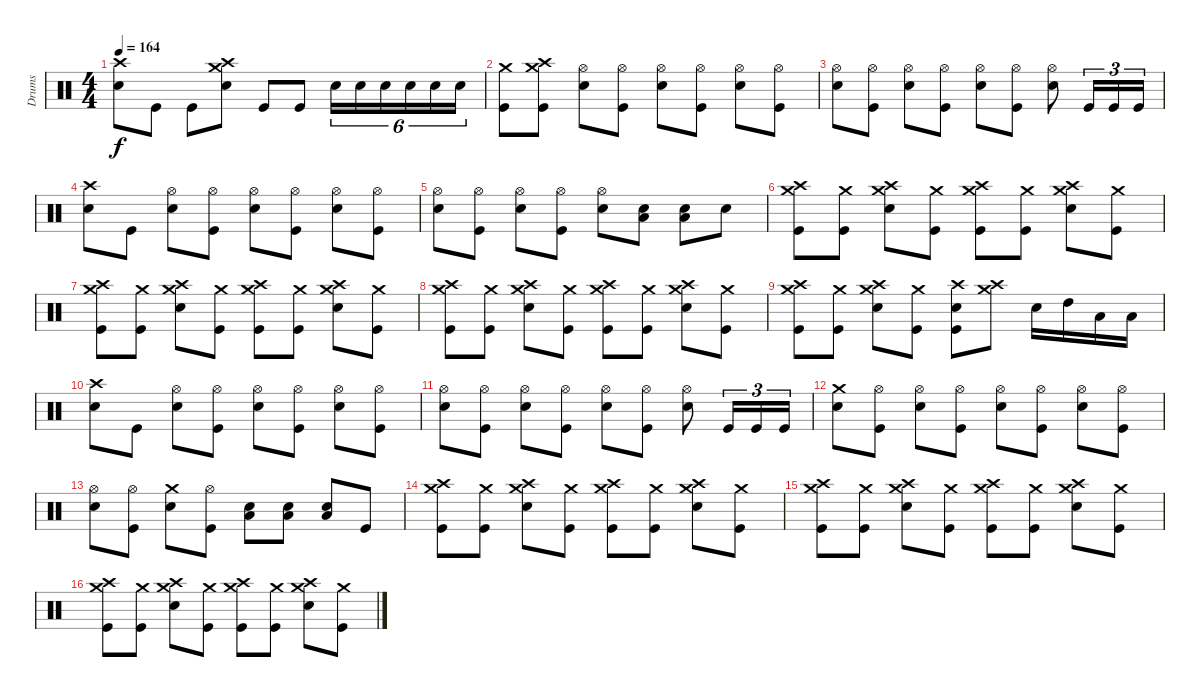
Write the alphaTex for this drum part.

\track ("Drums" "Drums") {instrument percussion}
\staff {score}
\articulation defaults
\ts (4 4)
\tempo 164
\clef neutral
\ks c
("Snare (hit) 2" "Crash high (hit)").8{dy f} "Kick (hit)".8 "Kick (hit)".8 ("Snare (hit) 2" "Crash high (hit)" "Crash medium (hit)").8 "Kick (hit)".8 "Kick (hit)".8 "Snare (hit) 2".16{tu (6 4)} "Snare (hit) 2".16{tu (6 4)} "Snare (hit) 2".16{tu (6 4)} "Snare (hit) 2".16{tu (6 4)} "Snare (hit) 2".16{tu (6 4)} "Snare (hit) 2".16{tu (6 4)} |
("Crash medium (hit)" "Kick (hit)").8 ("Crash medium (hit)" "Kick (hit)" "Crash high (hit)").8 ("Snare (hit) 2" "Hi-Hat (open)").8 ("Hi-Hat (open)" "Kick (hit)").8 ("Snare (hit) 2" "Hi-Hat (open)").8 ("Hi-Hat (open)" "Kick (hit)").8 ("Snare (hit) 2" "Hi-Hat (open)").8 ("Hi-Hat (open)" "Kick (hit)").8 |
("Snare (hit) 2" "Hi-Hat (open)").8 ("Hi-Hat (open)" "Kick (hit)").8 ("Snare (hit) 2" "Hi-Hat (open)").8 ("Hi-Hat (open)" "Kick (hit)").8 ("Snare (hit) 2" "Hi-Hat (open)").8 ("Hi-Hat (open)" "Kick (hit)").8 ("Snare (hit) 2" "Hi-Hat (open)").8 "Kick (hit)".16{tu (3 2)} "Kick (hit)".16{tu (3 2)} "Kick (hit)".16{tu (3 2)} |
("Snare (hit) 2" "Crash high (hit)").8 "Kick (hit)".8 ("Snare (hit) 2" "Hi-Hat (open)").8 ("Hi-Hat (open)" "Kick (hit)").8 ("Snare (hit) 2" "Hi-Hat (open)").8 ("Hi-Hat (open)" "Kick (hit)").8 ("Snare (hit) 2" "Hi-Hat (open)").8 ("Hi-Hat (open)" "Kick (hit)").8 |
("Snare (hit) 2" "Hi-Hat (open)").8 ("Hi-Hat (open)" "Kick (hit)").8 ("Snare (hit) 2" "Hi-Hat (open)").8 ("Hi-Hat (open)" "Kick (hit)").8 ("Snare (hit) 2" "Hi-Hat (open)").8 ("Snare (hit) 2" "Low Floor Tom (hit)").8 ("Snare (hit) 2" "Low Floor Tom (hit)").8 "Snare (hit) 2".8 |
("Crash medium (hit)" "Kick (hit)" "Crash high (hit)").8 ("Crash medium (hit)" "Kick (hit)").8 ("Snare (hit) 2" "Crash medium (hit)" "Crash high (hit)").8 ("Crash medium (hit)" "Kick (hit)").8 ("Crash medium (hit)" "Kick (hit)" "Crash high (hit)").8 ("Crash medium (hit)" "Kick (hit)").8 ("Snare (hit) 2" "Crash medium (hit)" "Crash high (hit)").8 ("Crash medium (hit)" "Kick (hit)").8 |
("Crash medium (hit)" "Kick (hit)" "Crash high (hit)").8 ("Crash medium (hit)" "Kick (hit)").8 ("Snare (hit) 2" "Crash medium (hit)" "Crash high (hit)").8 ("Crash medium (hit)" "Kick (hit)").8 ("Crash medium (hit)" "Kick (hit)" "Crash high (hit)").8 ("Crash medium (hit)" "Kick (hit)").8 ("Snare (hit) 2" "Crash medium (hit)" "Crash high (hit)").8 ("Crash medium (hit)" "Kick (hit)").8 |
("Crash medium (hit)" "Kick (hit)" "Crash high (hit)").8 ("Crash medium (hit)" "Kick (hit)").8 ("Snare (hit) 2" "Crash medium (hit)" "Crash high (hit)").8 ("Crash medium (hit)" "Kick (hit)").8 ("Crash medium (hit)" "Kick (hit)" "Crash high (hit)").8 ("Crash medium (hit)" "Kick (hit)").8 ("Snare (hit) 2" "Crash medium (hit)" "Crash high (hit)").8 ("Crash medium (hit)" "Kick (hit)").8 |
("Crash medium (hit)" "Kick (hit)" "Crash high (hit)").8 ("Crash medium (hit)" "Kick (hit)").8 ("Snare (hit) 2" "Crash medium (hit)" "Crash high (hit)").8 ("Crash medium (hit)" "Kick (hit)").8 ("Snare (hit) 2" "Kick (hit)" "Crash high (hit)").8 ("Crash high (hit)" "Crash medium (hit)").8 "Snare (hit) 2".16 "High Tom (hit)".16 "Low Tom (hit)".16 "Low Floor Tom (hit)".16 |
("Snare (hit) 2" "Crash high (hit)").8 "Kick (hit)".8 ("Snare (hit) 2" "Hi-Hat (open)").8 ("Hi-Hat (open)" "Kick (hit)").8 ("Snare (hit) 2" "Hi-Hat (open)").8 ("Hi-Hat (open)" "Kick (hit)").8 ("Snare (hit) 2" "Hi-Hat (open)").8 ("Hi-Hat (open)" "Kick (hit)").8 |
("Snare (hit) 2" "Hi-Hat (open)").8 ("Hi-Hat (open)" "Kick (hit)").8 ("Snare (hit) 2" "Hi-Hat (open)").8 ("Hi-Hat (open)" "Kick (hit)").8 ("Snare (hit) 2" "Hi-Hat (open)").8 ("Hi-Hat (open)" "Kick (hit)").8 ("Snare (hit) 2" "Hi-Hat (open)").8 "Kick (hit)".16{tu (3 2)} "Kick (hit)".16{tu (3 2)} "Kick (hit)".16{tu (3 2)} |
("Snare (hit) 2" "Crash medium (hit)").8 ("Hi-Hat (open)" "Kick (hit)").8 ("Snare (hit) 2" "Hi-Hat (open)").8 ("Hi-Hat (open)" "Kick (hit)").8 ("Snare (hit) 2" "Hi-Hat (open)").8 ("Hi-Hat (open)" "Kick (hit)").8 ("Snare (hit) 2" "Hi-Hat (open)").8 ("Hi-Hat (open)" "Kick (hit)").8 |
("Snare (hit) 2" "Hi-Hat (open)").8 ("Hi-Hat (open)" "Kick (hit)").8 ("Snare (hit) 2" "Crash medium (hit)").8 ("Hi-Hat (open)" "Kick (hit)").8 ("Snare (hit) 2" "Low Floor Tom (hit)").8 ("Snare (hit) 2" "Low Floor Tom (hit)").8 ("Snare (hit) 2" "Low Floor Tom (hit)").8 "Kick (hit)".8 |
("Crash medium (hit)" "Kick (hit)" "Crash high (hit)").8 ("Crash medium (hit)" "Kick (hit)").8 ("Snare (hit) 2" "Crash medium (hit)" "Crash high (hit)").8 ("Crash medium (hit)" "Kick (hit)").8 ("Crash medium (hit)" "Kick (hit)" "Crash high (hit)").8 ("Crash medium (hit)" "Kick (hit)").8 ("Snare (hit) 2" "Crash medium (hit)" "Crash high (hit)").8 ("Crash medium (hit)" "Kick (hit)").8 |
("Crash medium (hit)" "Kick (hit)" "Crash high (hit)").8 ("Crash medium (hit)" "Kick (hit)").8 ("Snare (hit) 2" "Crash medium (hit)" "Crash high (hit)").8 ("Crash medium (hit)" "Kick (hit)").8 ("Crash medium (hit)" "Kick (hit)" "Crash high (hit)").8 ("Crash medium (hit)" "Kick (hit)").8 ("Snare (hit) 2" "Crash medium (hit)" "Crash high (hit)").8 ("Crash medium (hit)" "Kick (hit)").8 |
("Crash medium (hit)" "Kick (hit)" "Crash high (hit)").8 ("Crash medium (hit)" "Kick (hit)").8 ("Snare (hit) 2" "Crash medium (hit)" "Crash high (hit)").8 ("Crash medium (hit)" "Kick (hit)").8 ("Crash medium (hit)" "Kick (hit)" "Crash high (hit)").8 ("Crash medium (hit)" "Kick (hit)").8 ("Snare (hit) 2" "Crash medium (hit)" "Crash high (hit)").8 ("Crash medium (hit)" "Kick (hit)").8
